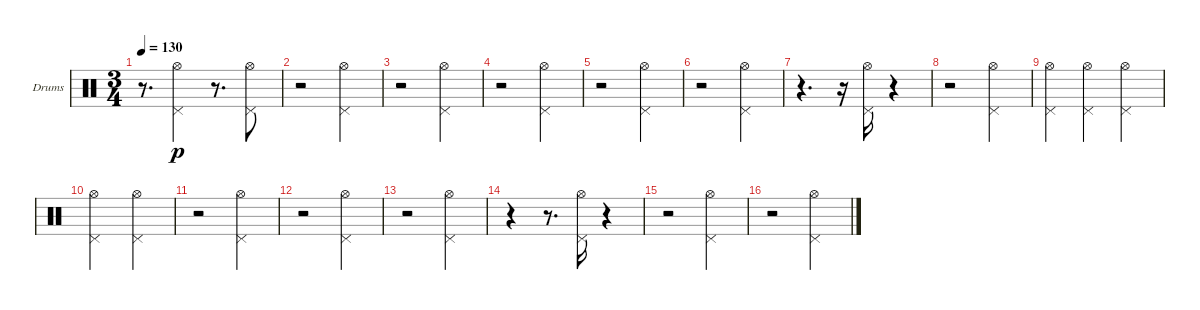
\bracketExtendMode groupsimilarinstruments
\firstSystemTrackNameOrientation horizontal
\otherSystemsTrackNameOrientation horizontal
\track ("HH" "Drums") {instrument percussion}
\staff {score}
\articulation defaults
\ts (3 4)
\tempo 130
\clef neutral
\ks c
r.8{d dy p} ("Pedal Hi-Hat (hit)" "Hi-Hat (open)").4 r.8{d} ("Pedal Hi-Hat (hit)" "Hi-Hat (open)").8 |
r.2 ("Pedal Hi-Hat (hit)" "Hi-Hat (open)").4 |
r.2 ("Pedal Hi-Hat (hit)" "Hi-Hat (open)").4 |
r.2 ("Pedal Hi-Hat (hit)" "Hi-Hat (open)").4 |
r.2 ("Pedal Hi-Hat (hit)" "Hi-Hat (open)").4 |
r.2 ("Pedal Hi-Hat (hit)" "Hi-Hat (open)").4 |
r.4{d} r.16 ("Pedal Hi-Hat (hit)" "Hi-Hat (open)").16 r.4 |
r.2 ("Pedal Hi-Hat (hit)" "Hi-Hat (open)").4 |
("Pedal Hi-Hat (hit)" "Hi-Hat (open)").4 ("Pedal Hi-Hat (hit)" "Hi-Hat (open)").4 ("Pedal Hi-Hat (hit)" "Hi-Hat (open)").4 |
("Pedal Hi-Hat (hit)" "Hi-Hat (open)").2 ("Pedal Hi-Hat (hit)" "Hi-Hat (open)").4 |
r.2 ("Pedal Hi-Hat (hit)" "Hi-Hat (open)").4 |
r.2 ("Pedal Hi-Hat (hit)" "Hi-Hat (open)").4 |
r.2 ("Pedal Hi-Hat (hit)" "Hi-Hat (open)").4 |
r.4 r.8{d} ("Pedal Hi-Hat (hit)" "Hi-Hat (open)").16 r.4 |
r.2 ("Pedal Hi-Hat (hit)" "Hi-Hat (open)").4 |
r.2 ("Pedal Hi-Hat (hit)" "Hi-Hat (open)").4
